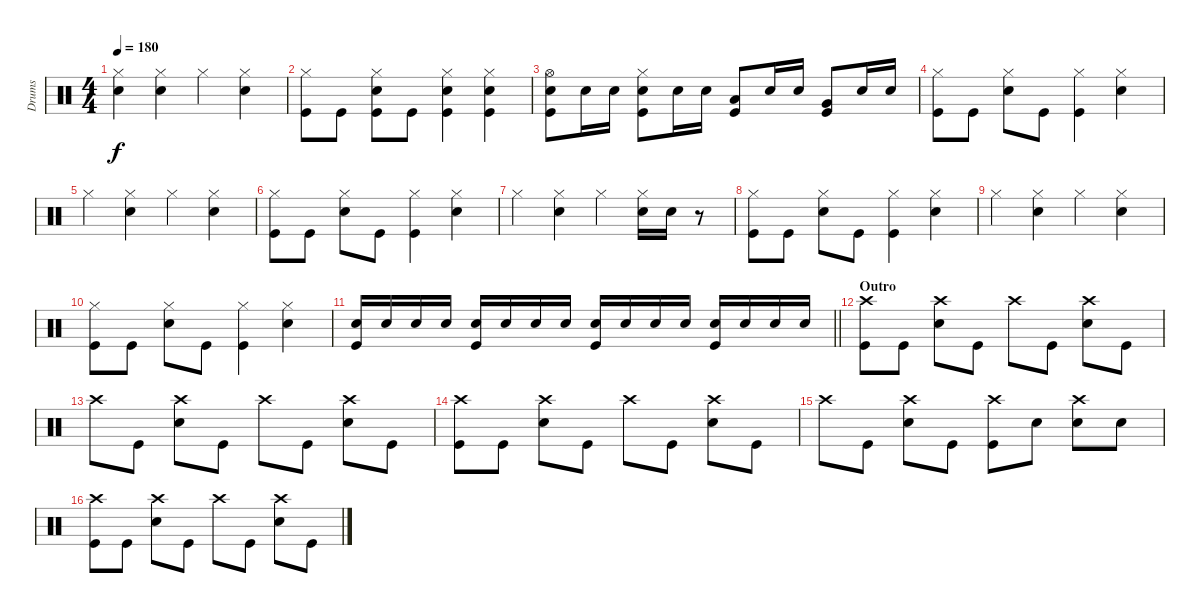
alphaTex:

\track ("Drums" "Drums") {instrument percussion}
\staff {score}
\articulation defaults
\ts (4 4)
\tempo 180
\clef neutral
\ks c
("Hi-Hat (closed)" "Snare (hit) 2").4{dy f} ("Hi-Hat (closed)" "Snare (hit) 2").4 "Hi-Hat (closed)".4 ("Hi-Hat (closed)" "Snare (hit) 2").4 |
("Hi-Hat (closed)" "Kick (hit)").8 "Kick (hit)".8 ("Hi-Hat (closed)" "Snare (hit) 2" "Kick (hit)").8 "Kick (hit)".8 ("Hi-Hat (closed)" "Snare (hit) 2" "Kick (hit)").4 ("Hi-Hat (closed)" "Snare (hit) 2" "Kick (hit)").4 |
("Hi-Hat (open)" "Snare (hit) 2" "Kick (hit)").8 "Snare (hit) 2".16 "Snare (hit) 2".16 ("Hi-Hat (closed)" "Snare (hit) 2" "Kick (hit)").8 "Snare (hit) 2".16 "Snare (hit) 2".16 ("Low Tom (hit)" "Kick (hit)").8 "Snare (hit) 2".16 "Snare (hit) 2".16 ("Very Low Tom (hit)" "Kick (hit)").8 "Snare (hit) 2".16 "Snare (hit) 2".16 |
("Hi-Hat (closed)" "Kick (hit)").8 "Kick (hit)".8 ("Hi-Hat (closed)" "Snare (hit) 2").8 "Kick (hit)".8 ("Hi-Hat (closed)" "Kick (hit)").4 ("Hi-Hat (closed)" "Snare (hit) 2").4 |
"Hi-Hat (closed)".4 ("Hi-Hat (closed)" "Snare (hit) 2").4 "Hi-Hat (closed)".4 ("Hi-Hat (closed)" "Snare (hit) 2").4 |
("Hi-Hat (closed)" "Kick (hit)").8 "Kick (hit)".8 ("Hi-Hat (closed)" "Snare (hit) 2").8 "Kick (hit)".8 ("Hi-Hat (closed)" "Kick (hit)").4 ("Hi-Hat (closed)" "Snare (hit) 2").4 |
"Hi-Hat (closed)".4 ("Hi-Hat (closed)" "Snare (hit) 2").4 "Hi-Hat (closed)".4 ("Hi-Hat (closed)" "Snare (hit) 2").16 "Snare (hit) 2".16 r.8 |
("Hi-Hat (closed)" "Kick (hit)").8 "Kick (hit)".8 ("Hi-Hat (closed)" "Snare (hit) 2").8 "Kick (hit)".8 ("Hi-Hat (closed)" "Kick (hit)").4 ("Hi-Hat (closed)" "Snare (hit) 2").4 |
"Hi-Hat (closed)".4 ("Hi-Hat (closed)" "Snare (hit) 2").4 "Hi-Hat (closed)".4 ("Hi-Hat (closed)" "Snare (hit) 2").4 |
("Hi-Hat (closed)" "Kick (hit)").8 "Kick (hit)".8 ("Hi-Hat (closed)" "Snare (hit) 2").8 "Kick (hit)".8 ("Hi-Hat (closed)" "Kick (hit)").4 ("Hi-Hat (closed)" "Snare (hit) 2").4 |
\barLineRight lightlight
("Snare (hit) 2" "Kick (hit)").16 "Snare (hit) 2".16 "Snare (hit) 2".16 "Snare (hit) 2".16 ("Snare (hit) 2" "Kick (hit)").16 "Snare (hit) 2".16 "Snare (hit) 2".16 "Snare (hit) 2".16 ("Snare (hit) 2" "Kick (hit)").16 "Snare (hit) 2".16 "Snare (hit) 2".16 "Snare (hit) 2".16 ("Snare (hit) 2" "Kick (hit)").16 "Snare (hit) 2".16 "Snare (hit) 2".16 "Snare (hit) 2".16 |
\section ("" "Outro")
("Crash high (hit)" "Kick (hit)").8 "Kick (hit)".8 ("Crash high (hit)" "Snare (hit) 2").8 "Kick (hit)".8 "Crash high (hit)".8 "Kick (hit)".8 ("Crash high (hit)" "Snare (hit) 2").8 "Kick (hit)".8 |
"Crash high (hit)".8 "Kick (hit)".8 ("Crash high (hit)" "Snare (hit) 2").8 "Kick (hit)".8 "Crash high (hit)".8 "Kick (hit)".8 ("Crash high (hit)" "Snare (hit) 2").8 "Kick (hit)".8 |
("Crash high (hit)" "Kick (hit)").8 "Kick (hit)".8 ("Crash high (hit)" "Snare (hit) 2").8 "Kick (hit)".8 "Crash high (hit)".8 "Kick (hit)".8 ("Crash high (hit)" "Snare (hit) 2").8 "Kick (hit)".8 |
"Crash high (hit)".8 "Kick (hit)".8 ("Crash high (hit)" "Snare (hit) 2").8 "Kick (hit)".8 ("Crash high (hit)" "Kick (hit)").8 "Snare (hit) 2".8 ("Crash high (hit)" "Snare (hit) 2").8 "Snare (hit) 2".8 |
("Crash high (hit)" "Kick (hit)").8 "Kick (hit)".8 ("Crash high (hit)" "Snare (hit) 2").8 "Kick (hit)".8 "Crash high (hit)".8 "Kick (hit)".8 ("Crash high (hit)" "Snare (hit) 2").8 "Kick (hit)".8
